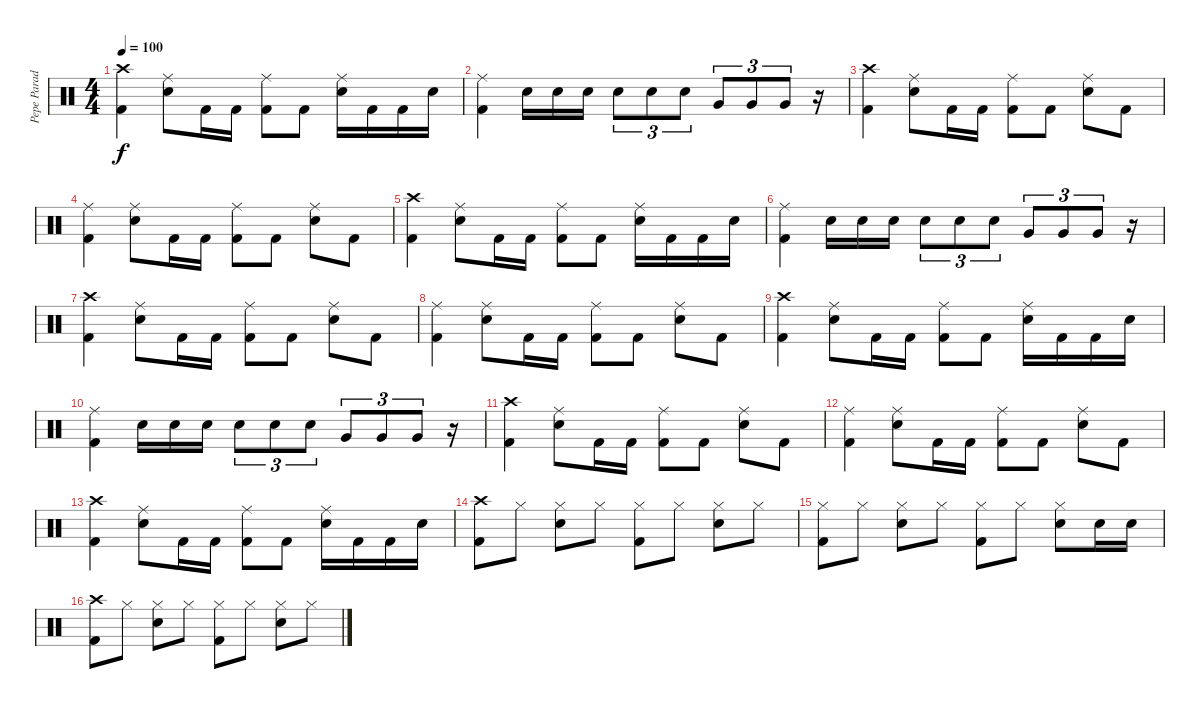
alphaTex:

\track ("Pepe Parada (kit de percusion)" "Pepe Parad") {instrument percussion}
\staff {score}
\articulation defaults
\ts (4 4)
\tempo 100
\clef neutral
\ks c
("Crash high (hit)" "Kick (hit) 2").4{dy f} ("Ride (middle)" "Snare (hit) 2").8 "Kick (hit) 2".16 "Kick (hit) 2".16 ("Ride (middle)" "Kick (hit) 2").8 "Kick (hit) 2".8 ("Ride (middle)" "Snare (hit) 2").16 "Kick (hit) 2".16 "Kick (hit) 2".16 "Snare (hit) 2".16 |
("Ride (middle)" "Kick (hit) 2").4 "Snare (hit) 2".16 "Snare (hit) 2".16 "Snare (hit) 2".16 "Snare (hit) 2".8{tu (3 2)} "Snare (hit) 2".8{tu (3 2)} "Snare (hit) 2".8{tu (3 2)} "Very Low Tom (hit)".8{tu (3 2)} "Very Low Tom (hit)".8{tu (3 2)} "Very Low Tom (hit)".8{tu (3 2)} r.16 |
("Crash high (hit)" "Kick (hit) 2").4 ("Ride (middle)" "Snare (hit) 2").8 "Kick (hit) 2".16 "Kick (hit) 2".16 ("Ride (middle)" "Kick (hit) 2").8 "Kick (hit) 2".8 ("Ride (middle)" "Snare (hit) 2").8 "Kick (hit) 2".8 |
("Ride (middle)" "Kick (hit) 2").4 ("Ride (middle)" "Snare (hit) 2").8 "Kick (hit) 2".16 "Kick (hit) 2".16 ("Ride (middle)" "Kick (hit) 2").8 "Kick (hit) 2".8 ("Ride (middle)" "Snare (hit) 2").8 "Kick (hit) 2".8 |
("Crash high (hit)" "Kick (hit) 2").4 ("Ride (middle)" "Snare (hit) 2").8 "Kick (hit) 2".16 "Kick (hit) 2".16 ("Ride (middle)" "Kick (hit) 2").8 "Kick (hit) 2".8 ("Ride (middle)" "Snare (hit) 2").16 "Kick (hit) 2".16 "Kick (hit) 2".16 "Snare (hit) 2".16 |
("Ride (middle)" "Kick (hit) 2").4 "Snare (hit) 2".16 "Snare (hit) 2".16 "Snare (hit) 2".16 "Snare (hit) 2".8{tu (3 2)} "Snare (hit) 2".8{tu (3 2)} "Snare (hit) 2".8{tu (3 2)} "Very Low Tom (hit)".8{tu (3 2)} "Very Low Tom (hit)".8{tu (3 2)} "Very Low Tom (hit)".8{tu (3 2)} r.16 |
("Crash high (hit)" "Kick (hit) 2").4 ("Ride (middle)" "Snare (hit) 2").8 "Kick (hit) 2".16 "Kick (hit) 2".16 ("Ride (middle)" "Kick (hit) 2").8 "Kick (hit) 2".8 ("Ride (middle)" "Snare (hit) 2").8 "Kick (hit) 2".8 |
("Ride (middle)" "Kick (hit) 2").4 ("Ride (middle)" "Snare (hit) 2").8 "Kick (hit) 2".16 "Kick (hit) 2".16 ("Ride (middle)" "Kick (hit) 2").8 "Kick (hit) 2".8 ("Ride (middle)" "Snare (hit) 2").8 "Kick (hit) 2".8 |
("Crash high (hit)" "Kick (hit) 2").4 ("Ride (middle)" "Snare (hit) 2").8 "Kick (hit) 2".16 "Kick (hit) 2".16 ("Ride (middle)" "Kick (hit) 2").8 "Kick (hit) 2".8 ("Ride (middle)" "Snare (hit) 2").16 "Kick (hit) 2".16 "Kick (hit) 2".16 "Snare (hit) 2".16 |
("Ride (middle)" "Kick (hit) 2").4 "Snare (hit) 2".16 "Snare (hit) 2".16 "Snare (hit) 2".16 "Snare (hit) 2".8{tu (3 2)} "Snare (hit) 2".8{tu (3 2)} "Snare (hit) 2".8{tu (3 2)} "Very Low Tom (hit)".8{tu (3 2)} "Very Low Tom (hit)".8{tu (3 2)} "Very Low Tom (hit)".8{tu (3 2)} r.16 |
("Crash high (hit)" "Kick (hit) 2").4 ("Ride (middle)" "Snare (hit) 2").8 "Kick (hit) 2".16 "Kick (hit) 2".16 ("Ride (middle)" "Kick (hit) 2").8 "Kick (hit) 2".8 ("Ride (middle)" "Snare (hit) 2").8 "Kick (hit) 2".8 |
("Ride (middle)" "Kick (hit) 2").4 ("Ride (middle)" "Snare (hit) 2").8 "Kick (hit) 2".16 "Kick (hit) 2".16 ("Ride (middle)" "Kick (hit) 2").8 "Kick (hit) 2".8 ("Ride (middle)" "Snare (hit) 2").8 "Kick (hit) 2".8 |
("Crash high (hit)" "Kick (hit) 2").4 ("Ride (middle)" "Snare (hit) 2").8 "Kick (hit) 2".16 "Kick (hit) 2".16 ("Ride (middle)" "Kick (hit) 2").8 "Kick (hit) 2".8 ("Ride (middle)" "Snare (hit) 2").16 "Kick (hit) 2".16 "Kick (hit) 2".16 "Snare (hit) 2".16 |
("Crash high (hit)" "Kick (hit) 2").8 "Hi-Hat (closed)".8 ("Hi-Hat (closed)" "Snare (hit) 2").8 "Hi-Hat (closed)".8 ("Hi-Hat (closed)" "Kick (hit) 2").8 "Hi-Hat (closed)".8 ("Hi-Hat (closed)" "Snare (hit) 2").8 "Hi-Hat (closed)".8 |
("Hi-Hat (closed)" "Kick (hit) 2").8 "Hi-Hat (closed)".8 ("Hi-Hat (closed)" "Snare (hit) 2").8 "Hi-Hat (closed)".8 ("Hi-Hat (closed)" "Kick (hit) 2").8 "Hi-Hat (closed)".8 ("Hi-Hat (closed)" "Snare (hit) 2").8 "Snare (hit) 2".16 "Snare (hit) 2".16 |
("Crash high (hit)" "Kick (hit) 2").8 "Hi-Hat (closed)".8 ("Hi-Hat (closed)" "Snare (hit) 2").8 "Hi-Hat (closed)".8 ("Hi-Hat (closed)" "Kick (hit) 2").8 "Hi-Hat (closed)".8 ("Hi-Hat (closed)" "Snare (hit) 2").8 "Hi-Hat (closed)".8
